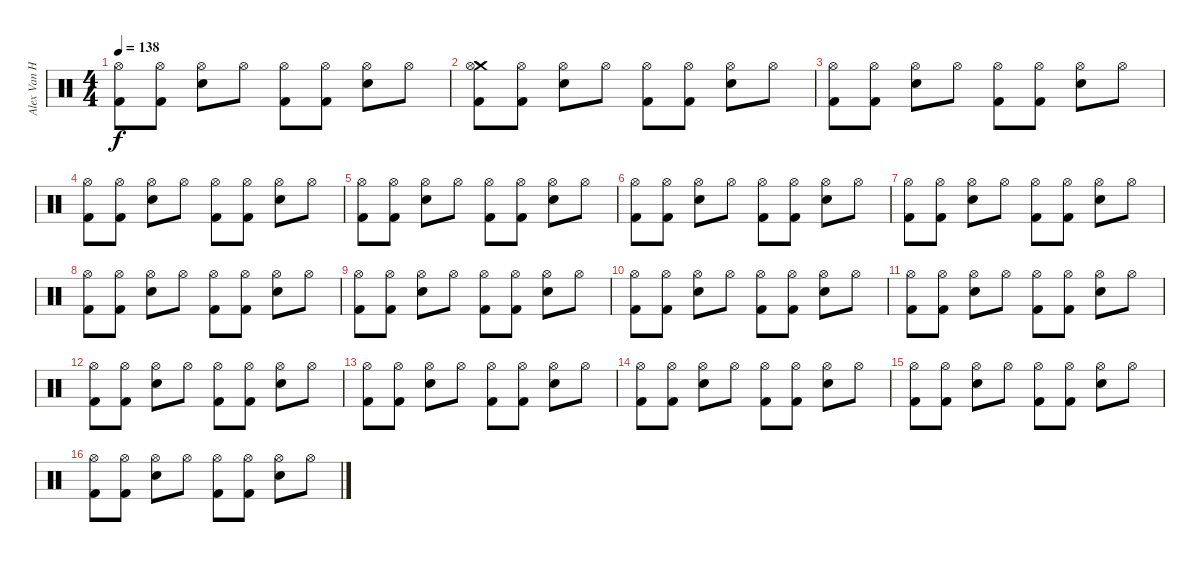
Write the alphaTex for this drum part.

\track ("Alex Van Halen " "Alex Van H") {instrument percussion}
\staff {score}
\articulation defaults
\ts (4 4)
\tempo 138
\clef neutral
\ks c
("Hi-Hat (open)" "Kick (hit) 2").8{dy f} ("Hi-Hat (open)" "Kick (hit) 2").8 ("Hi-Hat (open)" "Snare (hit) 2").8 "Hi-Hat (open)".8 ("Hi-Hat (open)" "Kick (hit) 2").8 ("Hi-Hat (open)" "Kick (hit) 2").8 ("Hi-Hat (open)" "Snare (hit) 2").8 "Hi-Hat (open)".8 |
("Crash medium (hit)" "Hi-Hat (open)" "Kick (hit) 2").8 ("Hi-Hat (open)" "Kick (hit) 2").8 ("Hi-Hat (open)" "Snare (hit) 2").8 "Hi-Hat (open)".8 ("Hi-Hat (open)" "Kick (hit) 2").8 ("Hi-Hat (open)" "Kick (hit) 2").8 ("Hi-Hat (open)" "Snare (hit) 2").8 "Hi-Hat (open)".8 |
("Hi-Hat (open)" "Kick (hit) 2").8 ("Hi-Hat (open)" "Kick (hit) 2").8 ("Hi-Hat (open)" "Snare (hit) 2").8 "Hi-Hat (open)".8 ("Hi-Hat (open)" "Kick (hit) 2").8 ("Hi-Hat (open)" "Kick (hit) 2").8 ("Hi-Hat (open)" "Snare (hit) 2").8 "Hi-Hat (open)".8 |
("Hi-Hat (open)" "Kick (hit) 2").8 ("Hi-Hat (open)" "Kick (hit) 2").8 ("Hi-Hat (open)" "Snare (hit) 2").8 "Hi-Hat (open)".8 ("Hi-Hat (open)" "Kick (hit) 2").8 ("Hi-Hat (open)" "Kick (hit) 2").8 ("Hi-Hat (open)" "Snare (hit) 2").8 "Hi-Hat (open)".8 |
("Hi-Hat (open)" "Kick (hit) 2").8 ("Hi-Hat (open)" "Kick (hit) 2").8 ("Hi-Hat (open)" "Snare (hit) 2").8 "Hi-Hat (open)".8 ("Hi-Hat (open)" "Kick (hit) 2").8 ("Hi-Hat (open)" "Kick (hit) 2").8 ("Hi-Hat (open)" "Snare (hit) 2").8 "Hi-Hat (open)".8 |
("Hi-Hat (open)" "Kick (hit) 2").8 ("Hi-Hat (open)" "Kick (hit) 2").8 ("Hi-Hat (open)" "Snare (hit) 2").8 "Hi-Hat (open)".8 ("Hi-Hat (open)" "Kick (hit) 2").8 ("Hi-Hat (open)" "Kick (hit) 2").8 ("Hi-Hat (open)" "Snare (hit) 2").8 "Hi-Hat (open)".8 |
("Hi-Hat (open)" "Kick (hit) 2").8 ("Hi-Hat (open)" "Kick (hit) 2").8 ("Hi-Hat (open)" "Snare (hit) 2").8 "Hi-Hat (open)".8 ("Hi-Hat (open)" "Kick (hit) 2").8 ("Hi-Hat (open)" "Kick (hit) 2").8 ("Hi-Hat (open)" "Snare (hit) 2").8 "Hi-Hat (open)".8 |
("Hi-Hat (open)" "Kick (hit) 2").8 ("Hi-Hat (open)" "Kick (hit) 2").8 ("Hi-Hat (open)" "Snare (hit) 2").8 "Hi-Hat (open)".8 ("Hi-Hat (open)" "Kick (hit) 2").8 ("Hi-Hat (open)" "Kick (hit) 2").8 ("Hi-Hat (open)" "Snare (hit) 2").8 "Hi-Hat (open)".8 |
("Hi-Hat (open)" "Kick (hit) 2").8 ("Hi-Hat (open)" "Kick (hit) 2").8 ("Hi-Hat (open)" "Snare (hit) 2").8 "Hi-Hat (open)".8 ("Hi-Hat (open)" "Kick (hit) 2").8 ("Hi-Hat (open)" "Kick (hit) 2").8 ("Hi-Hat (open)" "Snare (hit) 2").8 "Hi-Hat (open)".8 |
("Hi-Hat (open)" "Kick (hit) 2").8 ("Hi-Hat (open)" "Kick (hit) 2").8 ("Hi-Hat (open)" "Snare (hit) 2").8 "Hi-Hat (open)".8 ("Hi-Hat (open)" "Kick (hit) 2").8 ("Hi-Hat (open)" "Kick (hit) 2").8 ("Hi-Hat (open)" "Snare (hit) 2").8 "Hi-Hat (open)".8 |
("Hi-Hat (open)" "Kick (hit) 2").8 ("Hi-Hat (open)" "Kick (hit) 2").8 ("Hi-Hat (open)" "Snare (hit) 2").8 "Hi-Hat (open)".8 ("Hi-Hat (open)" "Kick (hit) 2").8 ("Hi-Hat (open)" "Kick (hit) 2").8 ("Hi-Hat (open)" "Snare (hit) 2").8 "Hi-Hat (open)".8 |
("Hi-Hat (open)" "Kick (hit) 2").8 ("Hi-Hat (open)" "Kick (hit) 2").8 ("Hi-Hat (open)" "Snare (hit) 2").8 "Hi-Hat (open)".8 ("Hi-Hat (open)" "Kick (hit) 2").8 ("Hi-Hat (open)" "Kick (hit) 2").8 ("Hi-Hat (open)" "Snare (hit) 2").8 "Hi-Hat (open)".8 |
("Hi-Hat (open)" "Kick (hit) 2").8 ("Hi-Hat (open)" "Kick (hit) 2").8 ("Hi-Hat (open)" "Snare (hit) 2").8 "Hi-Hat (open)".8 ("Hi-Hat (open)" "Kick (hit) 2").8 ("Hi-Hat (open)" "Kick (hit) 2").8 ("Hi-Hat (open)" "Snare (hit) 2").8 "Hi-Hat (open)".8 |
("Hi-Hat (open)" "Kick (hit) 2").8 ("Hi-Hat (open)" "Kick (hit) 2").8 ("Hi-Hat (open)" "Snare (hit) 2").8 "Hi-Hat (open)".8 ("Hi-Hat (open)" "Kick (hit) 2").8 ("Hi-Hat (open)" "Kick (hit) 2").8 ("Hi-Hat (open)" "Snare (hit) 2").8 "Hi-Hat (open)".8 |
("Hi-Hat (open)" "Kick (hit) 2").8 ("Hi-Hat (open)" "Kick (hit) 2").8 ("Hi-Hat (open)" "Snare (hit) 2").8 "Hi-Hat (open)".8 ("Hi-Hat (open)" "Kick (hit) 2").8 ("Hi-Hat (open)" "Kick (hit) 2").8 ("Hi-Hat (open)" "Snare (hit) 2").8 "Hi-Hat (open)".8 |
("Hi-Hat (open)" "Kick (hit) 2").8 ("Hi-Hat (open)" "Kick (hit) 2").8 ("Hi-Hat (open)" "Snare (hit) 2").8 "Hi-Hat (open)".8 ("Hi-Hat (open)" "Kick (hit) 2").8 ("Hi-Hat (open)" "Kick (hit) 2").8 ("Hi-Hat (open)" "Snare (hit) 2").8 "Hi-Hat (open)".8
